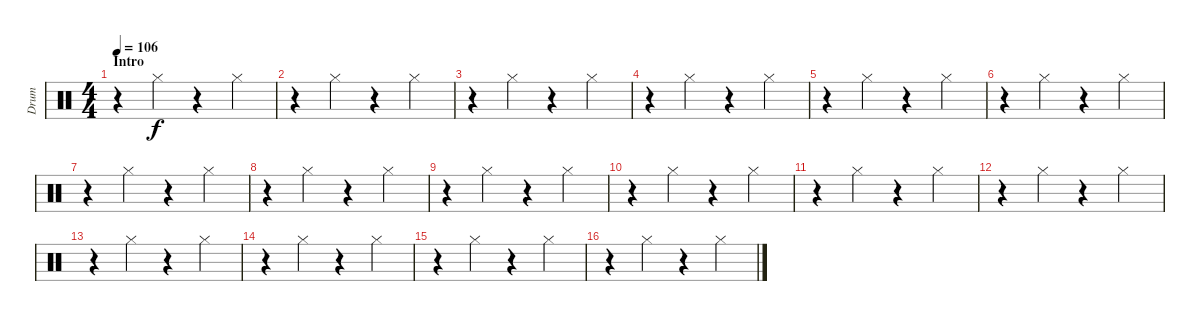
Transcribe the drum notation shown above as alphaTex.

\track ("Drum" "Drum") {instrument percussion}
\staff {score}
\articulation defaults
\ts (4 4)
\section ("" "Intro")
\tempo 106
\clef neutral
\ks c
r.4{dy f} "Hi-Hat (closed)".4 r.4 "Hi-Hat (closed)".4 |
r.4 "Hi-Hat (closed)".4 r.4 "Hi-Hat (closed)".4 |
r.4 "Hi-Hat (closed)".4 r.4 "Hi-Hat (closed)".4 |
r.4 "Hi-Hat (closed)".4 r.4 "Hi-Hat (closed)".4 |
r.4 "Hi-Hat (closed)".4 r.4 "Hi-Hat (closed)".4 |
r.4 "Hi-Hat (closed)".4 r.4 "Hi-Hat (closed)".4 |
r.4 "Hi-Hat (closed)".4 r.4 "Hi-Hat (closed)".4 |
r.4 "Hi-Hat (closed)".4 r.4 "Hi-Hat (closed)".4 |
r.4 "Hi-Hat (closed)".4 r.4 "Hi-Hat (closed)".4 |
r.4 "Hi-Hat (closed)".4 r.4 "Hi-Hat (closed)".4 |
r.4 "Hi-Hat (closed)".4 r.4 "Hi-Hat (closed)".4 |
r.4 "Hi-Hat (closed)".4 r.4 "Hi-Hat (closed)".4 |
r.4 "Hi-Hat (closed)".4 r.4 "Hi-Hat (closed)".4 |
r.4 "Hi-Hat (closed)".4 r.4 "Hi-Hat (closed)".4 |
r.4 "Hi-Hat (closed)".4 r.4 "Hi-Hat (closed)".4 |
r.4 "Hi-Hat (closed)".4 r.4 "Hi-Hat (closed)".4
